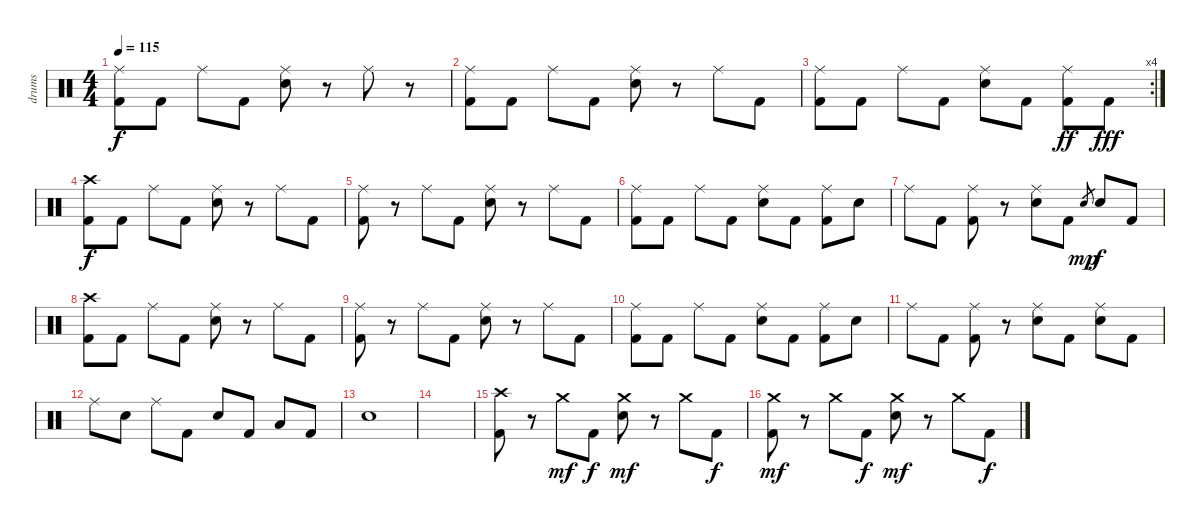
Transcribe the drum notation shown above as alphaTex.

\track ("drums" "drums") {instrument percussion}
\staff {score}
\articulation defaults
\ts (4 4)
\tempo 115
\clef neutral
\ks c
("Ride (middle)" "Kick (hit) 2").8{dy f} "Kick (hit) 2".8 "Ride (middle)".8 "Kick (hit) 2".8 ("Ride (middle)" "Electric Snare (hit)").8 r.8 "Ride (middle)".8 r.8 |
("Ride (middle)" "Kick (hit) 2").8 "Kick (hit) 2".8 "Ride (middle)".8 "Kick (hit) 2".8 ("Ride (middle)" "Electric Snare (hit)").8 r.8 "Ride (middle)".8 "Kick (hit) 2".8 |
\rc 4
("Ride (middle)" "Kick (hit) 2").8 "Kick (hit) 2".8 "Ride (middle)".8 "Kick (hit) 2".8 ("Ride (middle)" "Electric Snare (hit)").8 "Kick (hit) 2".8 ("Ride (middle)" "Kick (hit) 2").8{dy ff} "Kick (hit) 2".8{dy fff} |
("Crash high (hit)" "Kick (hit) 2").8{dy f} "Kick (hit) 2".8 "Ride (middle)".8 "Kick (hit) 2".8 ("Ride (middle)" "Electric Snare (hit)").8 r.8 "Ride (middle)".8 "Kick (hit) 2".8 |
("Ride (middle)" "Kick (hit) 2").8 r.8 "Ride (middle)".8 "Kick (hit) 2".8 ("Ride (middle)" "Electric Snare (hit)").8 r.8 "Ride (middle)".8 "Kick (hit) 2".8 |
("Ride (middle)" "Kick (hit) 2").8 "Kick (hit) 2".8 "Ride (middle)".8 "Kick (hit) 2".8 ("Ride (middle)" "Electric Snare (hit)").8 "Kick (hit) 2".8 ("Ride (middle)" "Kick (hit) 2").8 "Electric Snare (hit)".8 |
"Ride (middle)".8 "Kick (hit) 2".8 ("Ride (middle)" "Kick (hit) 2").8 r.8 ("Ride (middle)" "Electric Snare (hit)").8 "Kick (hit) 2".8 "Electric Snare (hit)".8{gr dy mp} "Electric Snare (hit)".8{dy f} "Kick (hit) 2".8 |
("Crash high (hit)" "Kick (hit) 2").8 "Kick (hit) 2".8 "Ride (middle)".8 "Kick (hit) 2".8 ("Ride (middle)" "Electric Snare (hit)").8 r.8 "Ride (middle)".8 "Kick (hit) 2".8 |
("Ride (middle)" "Kick (hit) 2").8 r.8 "Ride (middle)".8 "Kick (hit) 2".8 ("Ride (middle)" "Electric Snare (hit)").8 r.8 "Ride (middle)".8 "Kick (hit) 2".8 |
("Ride (middle)" "Kick (hit) 2").8 "Kick (hit) 2".8 "Ride (middle)".8 "Kick (hit) 2".8 ("Ride (middle)" "Electric Snare (hit)").8 "Kick (hit) 2".8 ("Ride (middle)" "Kick (hit) 2").8 "Electric Snare (hit)".8 |
"Ride (middle)".8 "Kick (hit) 2".8 ("Ride (middle)" "Kick (hit) 2").8 r.8 ("Ride (middle)" "Electric Snare (hit)").8 "Kick (hit) 2".8 ("Ride (middle)" "Electric Snare (hit)").8 "Kick (hit) 2".8 |
"Ride (middle)".8 "Electric Snare (hit)".8 "Ride (middle)".8 "Kick (hit) 2".8 "Electric Snare (hit)".8 "Kick (hit) 2".8 "Low Tom (hit)".8 "Kick (hit) 2".8 |
"Electric Snare (hit)".1 |
|
("Crash high (hit)" "Kick (hit) 2").8 r.8 "Crash medium (hit)".8{dy mf} "Kick (hit) 2".8{dy f} ("Crash medium (hit)" "Electric Snare (hit)").8{dy mf} r.8 "Crash medium (hit)".8 "Kick (hit) 2".8{dy f} |
("Crash medium (hit)" "Kick (hit) 2").8{dy mf} r.8 "Crash medium (hit)".8 "Kick (hit) 2".8{dy f} ("Crash medium (hit)" "Electric Snare (hit)").8{dy mf} r.8 "Crash medium (hit)".8 "Kick (hit) 2".8{dy f}
